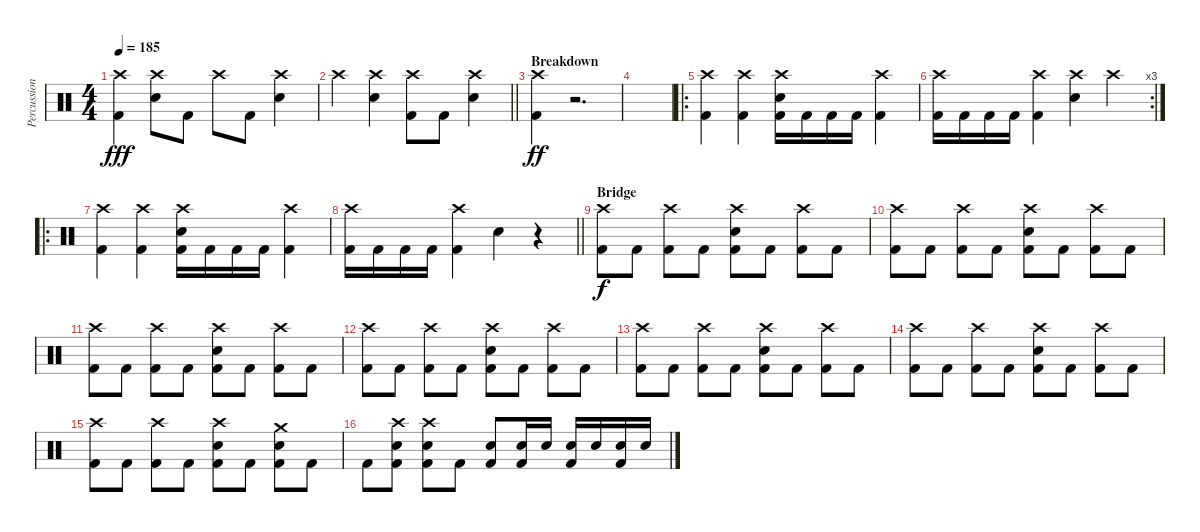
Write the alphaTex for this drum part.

\track ("Percussion" "Percussion") {instrument percussion}
\staff {score}
\articulation defaults
\ts (4 4)
\tempo 185
\clef neutral
\ks c
("Crash high (hit)" "Kick (hit) 2").4{dy fff} ("Crash high (hit)" "Snare (hit) 2").8 "Kick (hit) 2".8 "Crash high (hit)".8 "Kick (hit) 2".8 ("Crash high (hit)" "Snare (hit) 2").4 |
\barLineRight lightlight "Crash high (hit)".4
("Crash high (hit)" "Snare (hit) 2").4 ("Crash high (hit)" "Kick (hit) 2").8 "Kick (hit) 2".8 ("Crash high (hit)" "Snare (hit) 2").4 |
\section ("" "Breakdown")
("Crash high (hit)" "Kick (hit) 2").4{dy ff} r.2{d} |
|
\ro
("Crash high (hit)" "Kick (hit) 2").4 ("Crash high (hit)" "Kick (hit) 2").4 ("Crash high (hit)" "Snare (hit) 2" "Kick (hit) 2").16 "Kick (hit) 2".16 "Kick (hit) 2".16 "Kick (hit) 2".16 ("Crash high (hit)" "Kick (hit) 2").4 |
\rc 3
("Crash high (hit)" "Kick (hit) 2").16 "Kick (hit) 2".16 "Kick (hit) 2".16 "Kick (hit) 2".16 ("Crash high (hit)" "Kick (hit) 2").4 ("Crash high (hit)" "Snare (hit) 2").4 "Crash high (hit)".4 |
\ro
("Crash high (hit)" "Kick (hit) 2").4 ("Crash high (hit)" "Kick (hit) 2").4 ("Crash high (hit)" "Snare (hit) 2" "Kick (hit) 2").16 "Kick (hit) 2".16 "Kick (hit) 2".16 "Kick (hit) 2".16 ("Crash high (hit)" "Kick (hit) 2").4 |
\barLineRight lightlight
("Crash high (hit)" "Kick (hit) 2").16 "Kick (hit) 2".16 "Kick (hit) 2".16 "Kick (hit) 2".16 ("Crash high (hit)" "Kick (hit) 2").4 "Snare (hit) 2".4 r.4 |
\section ("" "Bridge")
("Crash high (hit)" "Kick (hit) 2").8{dy f} "Kick (hit) 2".8 ("Crash high (hit)" "Kick (hit) 2").8 "Kick (hit) 2".8 ("Crash high (hit)" "Snare (hit) 2" "Kick (hit) 2").8 "Kick (hit) 2".8 ("Crash high (hit)" "Kick (hit) 2").8 "Kick (hit) 2".8 |
("Crash high (hit)" "Kick (hit) 2").8 "Kick (hit) 2".8 ("Crash high (hit)" "Kick (hit) 2").8 "Kick (hit) 2".8 ("Crash high (hit)" "Snare (hit) 2" "Kick (hit) 2").8 "Kick (hit) 2".8 ("Crash high (hit)" "Kick (hit) 2").8 "Kick (hit) 2".8 |
("Crash high (hit)" "Kick (hit) 2").8 "Kick (hit) 2".8 ("Crash high (hit)" "Kick (hit) 2").8 "Kick (hit) 2".8 ("Crash high (hit)" "Snare (hit) 2" "Kick (hit) 2").8 "Kick (hit) 2".8 ("Crash high (hit)" "Kick (hit) 2").8 "Kick (hit) 2".8 |
("Crash high (hit)" "Kick (hit) 2").8 "Kick (hit) 2".8 ("Crash high (hit)" "Kick (hit) 2").8 "Kick (hit) 2".8 ("Crash high (hit)" "Snare (hit) 2" "Kick (hit) 2").8 "Kick (hit) 2".8 ("Crash high (hit)" "Kick (hit) 2").8 "Kick (hit) 2".8 |
("Crash high (hit)" "Kick (hit) 2").8 "Kick (hit) 2".8 ("Crash high (hit)" "Kick (hit) 2").8 "Kick (hit) 2".8 ("Crash high (hit)" "Snare (hit) 2" "Kick (hit) 2").8 "Kick (hit) 2".8 ("Crash high (hit)" "Kick (hit) 2").8 "Kick (hit) 2".8 |
("Crash high (hit)" "Kick (hit) 2").8 "Kick (hit) 2".8 ("Crash high (hit)" "Kick (hit) 2").8 "Kick (hit) 2".8 ("Crash high (hit)" "Snare (hit) 2" "Kick (hit) 2").8 "Kick (hit) 2".8 ("Crash high (hit)" "Kick (hit) 2").8 "Kick (hit) 2".8 |
("Crash high (hit)" "Kick (hit) 2").8 "Kick (hit) 2".8 ("Crash high (hit)" "Kick (hit) 2").8 "Kick (hit) 2".8 ("Crash high (hit)" "Snare (hit) 2" "Kick (hit) 2").8 "Kick (hit) 2".8 ("Crash medium (hit)" "Snare (hit) 2" "Kick (hit) 2").8 "Kick (hit) 2".8 |
"Kick (hit) 2".8 ("Crash high (hit)" "Snare (hit) 2" "Kick (hit) 2").8 ("Crash high (hit)" "Snare (hit) 2" "Kick (hit) 2").8 "Kick (hit) 2".8 ("Snare (hit) 2" "Kick (hit) 2").8 ("Snare (hit) 2" "Kick (hit) 2").16 "Snare (hit) 2".16 ("Snare (hit) 2" "Kick (hit) 2").16 "Snare (hit) 2".16 ("Snare (hit) 2" "Kick (hit) 2").16 "Snare (hit) 2".16
